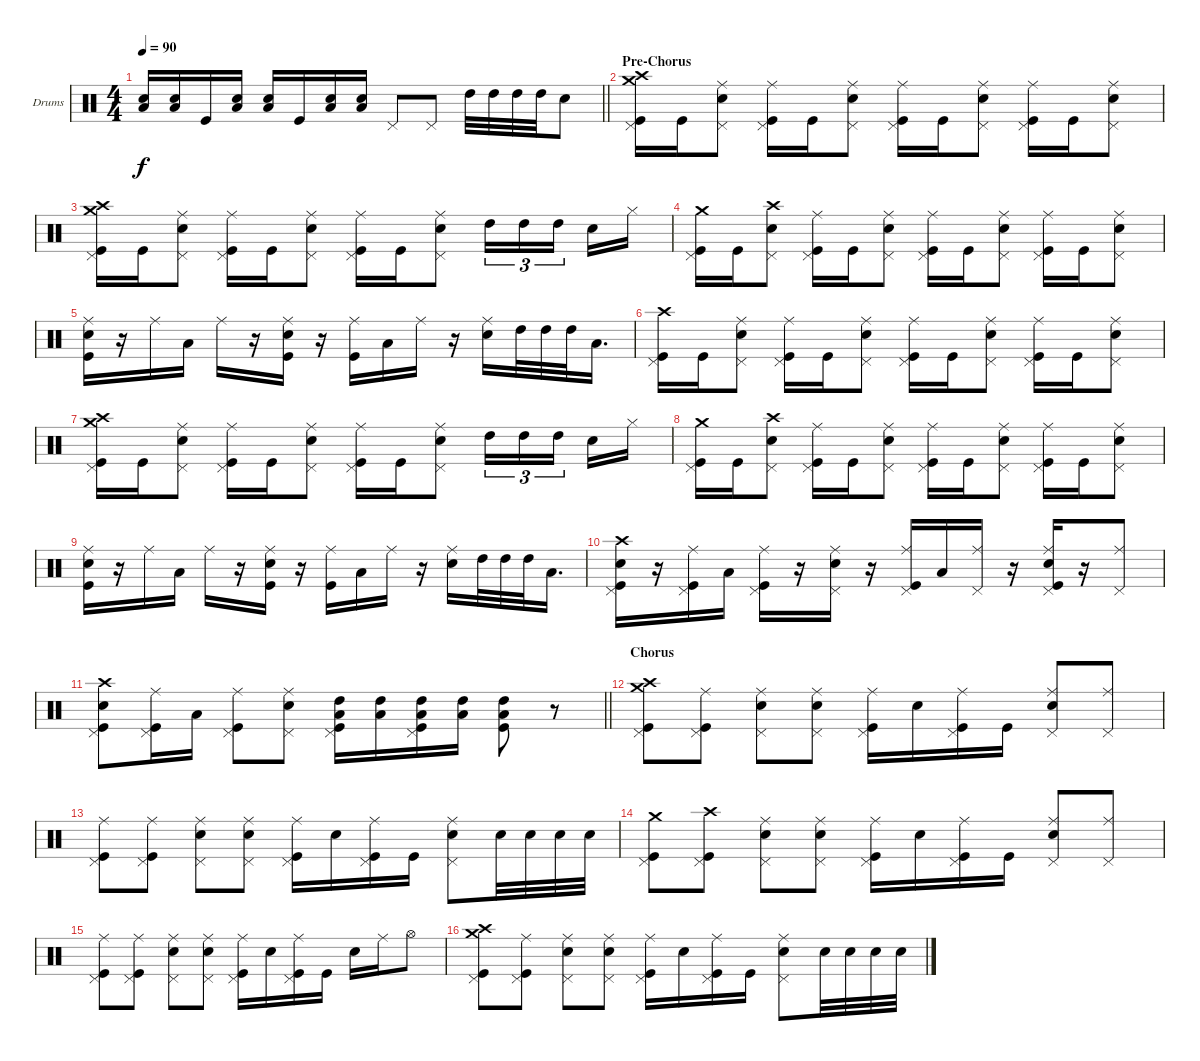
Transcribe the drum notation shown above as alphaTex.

\bracketExtendMode groupsimilarinstruments
\firstSystemTrackNameOrientation horizontal
\otherSystemsTrackNameOrientation horizontal
\track ("Rian Dawson" "Drums") {instrument percussion}
\staff {score}
\articulation defaults
\ts (4 4)
\tempo 90
\clef neutral
\scale
0.333333
\barLineRight lightlight
\ks c
("Low Tom (hit)" "Snare (hit) 2").16{dy f} ("Low Tom (hit)" "Snare (hit) 2").16 "Kick (hit)".16 ("Low Tom (hit)" "Snare (hit) 2").16 ("Low Tom (hit)" "Snare (hit) 2").16 "Kick (hit)".16 ("Low Tom (hit)" "Snare (hit) 2").16 ("Low Tom (hit)" "Snare (hit) 2").16 "Pedal Hi-Hat (hit)".8 "Pedal Hi-Hat (hit)".8 "High Tom (hit)".32 "High Tom (hit)".32 "High Tom (hit)".32 "High Tom (hit)".32 "Snare (hit) 2".8 |
\section ("" "Pre-Chorus")
\scale
0.333333 ("Crash high (hit)" "Crash medium (hit)" "Pedal Hi-Hat (hit)" "Kick (hit)").16 "Kick (hit)".16 ("Ride (middle)" "Pedal Hi-Hat (hit)" "Snare (hit) 2").8 ("Ride (middle)" "Pedal Hi-Hat (hit)" "Kick (hit)").16 "Kick (hit)".16 ("Ride (middle)" "Pedal Hi-Hat (hit)" "Snare (hit) 2").8 ("Ride (middle)" "Pedal Hi-Hat (hit)" "Kick (hit)").16 "Kick (hit)".16 ("Ride (middle)" "Pedal Hi-Hat (hit)" "Snare (hit) 2").8 ("Ride (middle)" "Pedal Hi-Hat (hit)" "Kick (hit)").16 "Kick (hit)".16 ("Ride (middle)" "Pedal Hi-Hat (hit)" "Snare (hit) 2").8 |
\scale
0.333333 ("Crash high (hit)" "Crash medium (hit)" "Pedal Hi-Hat (hit)" "Kick (hit)").16 "Kick (hit)".16 ("Ride (middle)" "Pedal Hi-Hat (hit)" "Snare (hit) 2").8 ("Ride (middle)" "Pedal Hi-Hat (hit)" "Kick (hit)").16 "Kick (hit)".16 ("Ride (middle)" "Pedal Hi-Hat (hit)" "Snare (hit) 2").8 ("Ride (middle)" "Pedal Hi-Hat (hit)" "Kick (hit)").16 "Kick (hit)".16 ("Ride (middle)" "Pedal Hi-Hat (hit)" "Snare (hit) 2").8 "High Tom (hit)".16{tu (3 2)} "High Tom (hit)".16{tu (3 2)} "High Tom (hit)".16{tu (3 2)} "Snare (hit) 2".16 "Hi-Hat (closed)".16 |
\scale
0.333333 ("Crash medium (hit)" "Pedal Hi-Hat (hit)" "Kick (hit)").16 "Kick (hit)".16 ("Crash high (hit)" "Pedal Hi-Hat (hit)" "Snare (hit) 2").8 ("Ride (middle)" "Pedal Hi-Hat (hit)" "Kick (hit)").16 "Kick (hit)".16 ("Ride (middle)" "Pedal Hi-Hat (hit)" "Snare (hit) 2").8 ("Ride (middle)" "Pedal Hi-Hat (hit)" "Kick (hit)").16 "Kick (hit)".16 ("Ride (middle)" "Pedal Hi-Hat (hit)" "Snare (hit) 2").8 ("Ride (middle)" "Pedal Hi-Hat (hit)" "Kick (hit)").16 "Kick (hit)".16 ("Ride (middle)" "Pedal Hi-Hat (hit)" "Snare (hit) 2").8 |
\scale
0.333333 ("Ride (middle)" "Snare (hit) 2" "Kick (hit)").16 r.16 "Ride (middle)".16 "Low Tom (hit)".16 "Ride (middle)".16 r.16 ("Ride (middle)" "Snare (hit) 2" "Kick (hit)").16 r.16 ("Ride (middle)" "Kick (hit)").16 "Low Tom (hit)".16 "Ride (middle)".16 r.16 ("Ride (middle)" "Snare (hit) 2").16 "High Tom (hit)".32 "High Tom (hit)".32 "High Tom (hit)".32 "Low Tom (hit)".16{d} |
\scale
0.333333 ("Crash high (hit)" "Pedal Hi-Hat (hit)" "Kick (hit)").16 "Kick (hit)".16 ("Ride (middle)" "Pedal Hi-Hat (hit)" "Snare (hit) 2").8 ("Ride (middle)" "Pedal Hi-Hat (hit)" "Kick (hit)").16 "Kick (hit)".16 ("Ride (middle)" "Pedal Hi-Hat (hit)" "Snare (hit) 2").8 ("Ride (middle)" "Pedal Hi-Hat (hit)" "Kick (hit)").16 "Kick (hit)".16 ("Ride (middle)" "Pedal Hi-Hat (hit)" "Snare (hit) 2").8 ("Ride (middle)" "Pedal Hi-Hat (hit)" "Kick (hit)").16 "Kick (hit)".16 ("Ride (middle)" "Pedal Hi-Hat (hit)" "Snare (hit) 2").8 |
\scale
0.333333 ("Crash high (hit)" "Crash medium (hit)" "Pedal Hi-Hat (hit)" "Kick (hit)").16 "Kick (hit)".16 ("Ride (middle)" "Pedal Hi-Hat (hit)" "Snare (hit) 2").8 ("Ride (middle)" "Pedal Hi-Hat (hit)" "Kick (hit)").16 "Kick (hit)".16 ("Ride (middle)" "Pedal Hi-Hat (hit)" "Snare (hit) 2").8 ("Ride (middle)" "Pedal Hi-Hat (hit)" "Kick (hit)").16 "Kick (hit)".16 ("Ride (middle)" "Pedal Hi-Hat (hit)" "Snare (hit) 2").8 "High Tom (hit)".16{tu (3 2)} "High Tom (hit)".16{tu (3 2)} "High Tom (hit)".16{tu (3 2)} "Snare (hit) 2".16 "Hi-Hat (closed)".16 |
\scale
0.333333 ("Crash medium (hit)" "Pedal Hi-Hat (hit)" "Kick (hit)").16 "Kick (hit)".16 ("Crash high (hit)" "Pedal Hi-Hat (hit)" "Snare (hit) 2").8 ("Ride (middle)" "Pedal Hi-Hat (hit)" "Kick (hit)").16 "Kick (hit)".16 ("Ride (middle)" "Pedal Hi-Hat (hit)" "Snare (hit) 2").8 ("Ride (middle)" "Pedal Hi-Hat (hit)" "Kick (hit)").16 "Kick (hit)".16 ("Ride (middle)" "Pedal Hi-Hat (hit)" "Snare (hit) 2").8 ("Ride (middle)" "Pedal Hi-Hat (hit)" "Kick (hit)").16 "Kick (hit)".16 ("Ride (middle)" "Pedal Hi-Hat (hit)" "Snare (hit) 2").8 |
\scale
0.333333 ("Ride (middle)" "Snare (hit) 2" "Kick (hit)").16 r.16 "Ride (middle)".16 "Low Tom (hit)".16 "Ride (middle)".16 r.16 ("Ride (middle)" "Snare (hit) 2" "Kick (hit)").16 r.16 ("Ride (middle)" "Kick (hit)").16 "Low Tom (hit)".16 "Ride (middle)".16 r.16 ("Ride (middle)" "Snare (hit) 2").16 "High Tom (hit)".32 "High Tom (hit)".32 "High Tom (hit)".32 "Low Tom (hit)".16{d} |
\scale
0.333333 ("Crash high (hit)" "Pedal Hi-Hat (hit)" "Snare (hit) 2" "Kick (hit)").16 r.16 ("Ride (middle)" "Pedal Hi-Hat (hit)" "Kick (hit)").16 "Low Tom (hit)".16 ("Ride (middle)" "Pedal Hi-Hat (hit)" "Kick (hit)").16 r.16 ("Ride (middle)" "Pedal Hi-Hat (hit)" "Snare (hit) 2").16 r.16 ("Ride (middle)" "Pedal Hi-Hat (hit)" "Kick (hit)").16 "Low Tom (hit)".16 ("Ride (middle)" "Pedal Hi-Hat (hit)").16 r.16 ("Ride (middle)" "Pedal Hi-Hat (hit)" "Snare (hit) 2" "Kick (hit)").16 r.16 ("Ride (middle)" "Pedal Hi-Hat (hit)").8 |
\scale
0.333333
\barLineRight lightlight
("Crash high (hit)" "Pedal Hi-Hat (hit)" "Snare (hit) 2" "Kick (hit)").8 ("Ride (middle)" "Pedal Hi-Hat (hit)" "Kick (hit)").16 "Low Tom (hit)".16 ("Ride (middle)" "Pedal Hi-Hat (hit)" "Kick (hit)").8 ("Ride (middle)" "Pedal Hi-Hat (hit)" "Snare (hit) 2").8 ("Pedal Hi-Hat (hit)" "Low Tom (hit)" "High Tom (hit)" "Kick (hit)").16 ("Low Tom (hit)" "High Tom (hit)").16 ("Pedal Hi-Hat (hit)" "Low Tom (hit)" "High Tom (hit)" "Kick (hit)").16 ("Low Tom (hit)" "High Tom (hit)").16 ("Low Tom (hit)" "High Tom (hit)" "Kick (hit)").8 r.8 |
\section ("" "Chorus")
\scale
0.333333 ("Crash medium (hit)" "Crash high (hit)" "Pedal Hi-Hat (hit)" "Kick (hit)").8 ("Ride (middle)" "Pedal Hi-Hat (hit)" "Kick (hit)").8 ("Ride (middle)" "Pedal Hi-Hat (hit)" "Snare (hit) 2").8 ("Ride (middle)" "Pedal Hi-Hat (hit)" "Snare (hit) 2").8 ("Ride (middle)" "Pedal Hi-Hat (hit)" "Kick (hit)").16 "Snare (hit) 2".16 ("Ride (middle)" "Pedal Hi-Hat (hit)" "Kick (hit)").16 "Kick (hit)".16 ("Ride (middle)" "Pedal Hi-Hat (hit)" "Snare (hit) 2").8 ("Ride (middle)" "Pedal Hi-Hat (hit)").8 |
\scale
0.333333 ("Ride (middle)" "Pedal Hi-Hat (hit)" "Kick (hit)").8 ("Ride (middle)" "Pedal Hi-Hat (hit)" "Kick (hit)").8 ("Ride (middle)" "Pedal Hi-Hat (hit)" "Snare (hit) 2").8 ("Ride (middle)" "Pedal Hi-Hat (hit)" "Snare (hit) 2").8 ("Ride (middle)" "Pedal Hi-Hat (hit)" "Kick (hit)").16 "Snare (hit) 2".16 ("Ride (middle)" "Pedal Hi-Hat (hit)" "Kick (hit)").16 "Kick (hit)".16 ("Ride (middle)" "Pedal Hi-Hat (hit)" "Snare (hit) 2").8 "Snare (hit) 2".32 "Snare (hit) 2".32 "Snare (hit) 2".32 "Snare (hit) 2".32 |
\scale
0.333333 ("Crash medium (hit)" "Pedal Hi-Hat (hit)" "Kick (hit)").8 ("Crash high (hit)" "Pedal Hi-Hat (hit)" "Kick (hit)").8 ("Ride (middle)" "Pedal Hi-Hat (hit)" "Snare (hit) 2").8 ("Ride (middle)" "Pedal Hi-Hat (hit)" "Snare (hit) 2").8 ("Ride (middle)" "Pedal Hi-Hat (hit)" "Kick (hit)").16 "Snare (hit) 2".16 ("Ride (middle)" "Pedal Hi-Hat (hit)" "Kick (hit)").16 "Kick (hit)".16 ("Ride (middle)" "Pedal Hi-Hat (hit)" "Snare (hit) 2").8 ("Ride (middle)" "Pedal Hi-Hat (hit)").8 |
\scale
0.333333 ("Ride (middle)" "Pedal Hi-Hat (hit)" "Kick (hit)").8 ("Ride (middle)" "Pedal Hi-Hat (hit)" "Kick (hit)").8 ("Ride (middle)" "Pedal Hi-Hat (hit)" "Snare (hit) 2").8 ("Ride (middle)" "Pedal Hi-Hat (hit)" "Snare (hit) 2").8 ("Ride (middle)" "Pedal Hi-Hat (hit)" "Kick (hit)").16 "Snare (hit) 2".16 ("Ride (middle)" "Pedal Hi-Hat (hit)" "Kick (hit)").16 "Kick (hit)".16 "Snare (hit) 2".16 "Ride (middle)".16 "Hi-Hat (open)".8 |
\scale
0.333333 ("Crash medium (hit)" "Crash high (hit)" "Pedal Hi-Hat (hit)" "Kick (hit)").8 ("Ride (middle)" "Pedal Hi-Hat (hit)" "Kick (hit)").8 ("Ride (middle)" "Pedal Hi-Hat (hit)" "Snare (hit) 2").8 ("Ride (middle)" "Pedal Hi-Hat (hit)" "Snare (hit) 2").8 ("Ride (middle)" "Pedal Hi-Hat (hit)" "Kick (hit)").16 "Snare (hit) 2".16 ("Ride (middle)" "Pedal Hi-Hat (hit)" "Kick (hit)").16 "Kick (hit)".16 ("Ride (middle)" "Pedal Hi-Hat (hit)" "Snare (hit) 2").8 "Snare (hit) 2".32 "Snare (hit) 2".32 "Snare (hit) 2".32 "Snare (hit) 2".32
